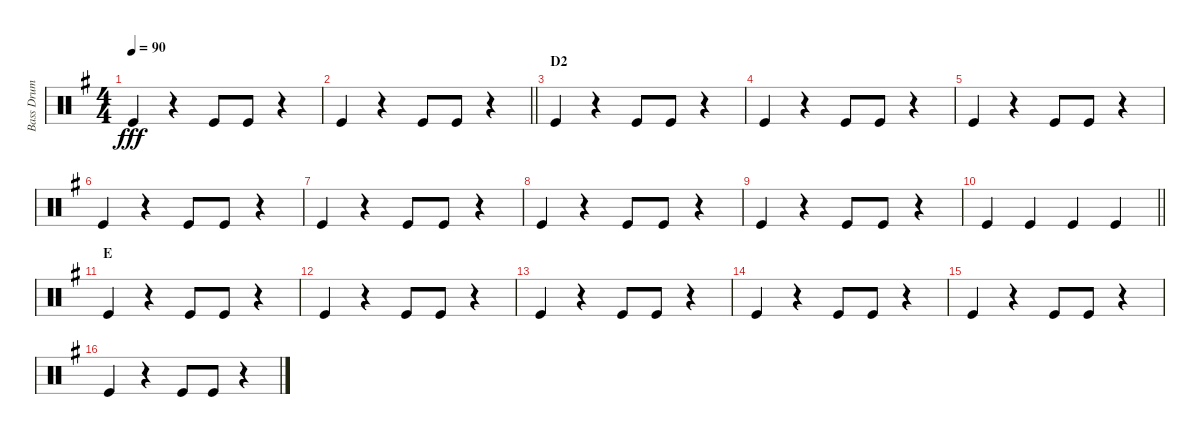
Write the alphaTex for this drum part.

\track ("Bass Drum" "Bass Drum") {instrument percussion}
\staff {score}
\articulation defaults
\ts (4 4)
\tempo 90
\clef neutral
\ks g "Kick (hit)".4{dy fff}
r.4 "Kick (hit)".8 "Kick (hit)".8 r.4 |
\barLineRight lightlight "Kick (hit)".4
r.4 "Kick (hit)".8 "Kick (hit)".8 r.4 |
\section ("" "D2")
"Kick (hit)".4 r.4 "Kick (hit)".8 "Kick (hit)".8 r.4 |
"Kick (hit)".4 r.4 "Kick (hit)".8 "Kick (hit)".8 r.4 |
"Kick (hit)".4 r.4 "Kick (hit)".8 "Kick (hit)".8 r.4 |
"Kick (hit)".4 r.4 "Kick (hit)".8 "Kick (hit)".8 r.4 |
"Kick (hit)".4 r.4 "Kick (hit)".8 "Kick (hit)".8 r.4 |
"Kick (hit)".4 r.4 "Kick (hit)".8 "Kick (hit)".8 r.4 |
"Kick (hit)".4 r.4 "Kick (hit)".8 "Kick (hit)".8 r.4 |
\barLineRight lightlight "Kick (hit)".4 "Kick (hit)".4 "Kick (hit)".4 "Kick (hit)".4
|
\section ("" "E")
"Kick (hit)".4 r.4 "Kick (hit)".8 "Kick (hit)".8 r.4 |
"Kick (hit)".4 r.4 "Kick (hit)".8 "Kick (hit)".8 r.4 |
"Kick (hit)".4 r.4 "Kick (hit)".8 "Kick (hit)".8 r.4 |
"Kick (hit)".4 r.4 "Kick (hit)".8 "Kick (hit)".8 r.4 |
"Kick (hit)".4 r.4 "Kick (hit)".8 "Kick (hit)".8 r.4 |
"Kick (hit)".4 r.4 "Kick (hit)".8 "Kick (hit)".8 r.4
